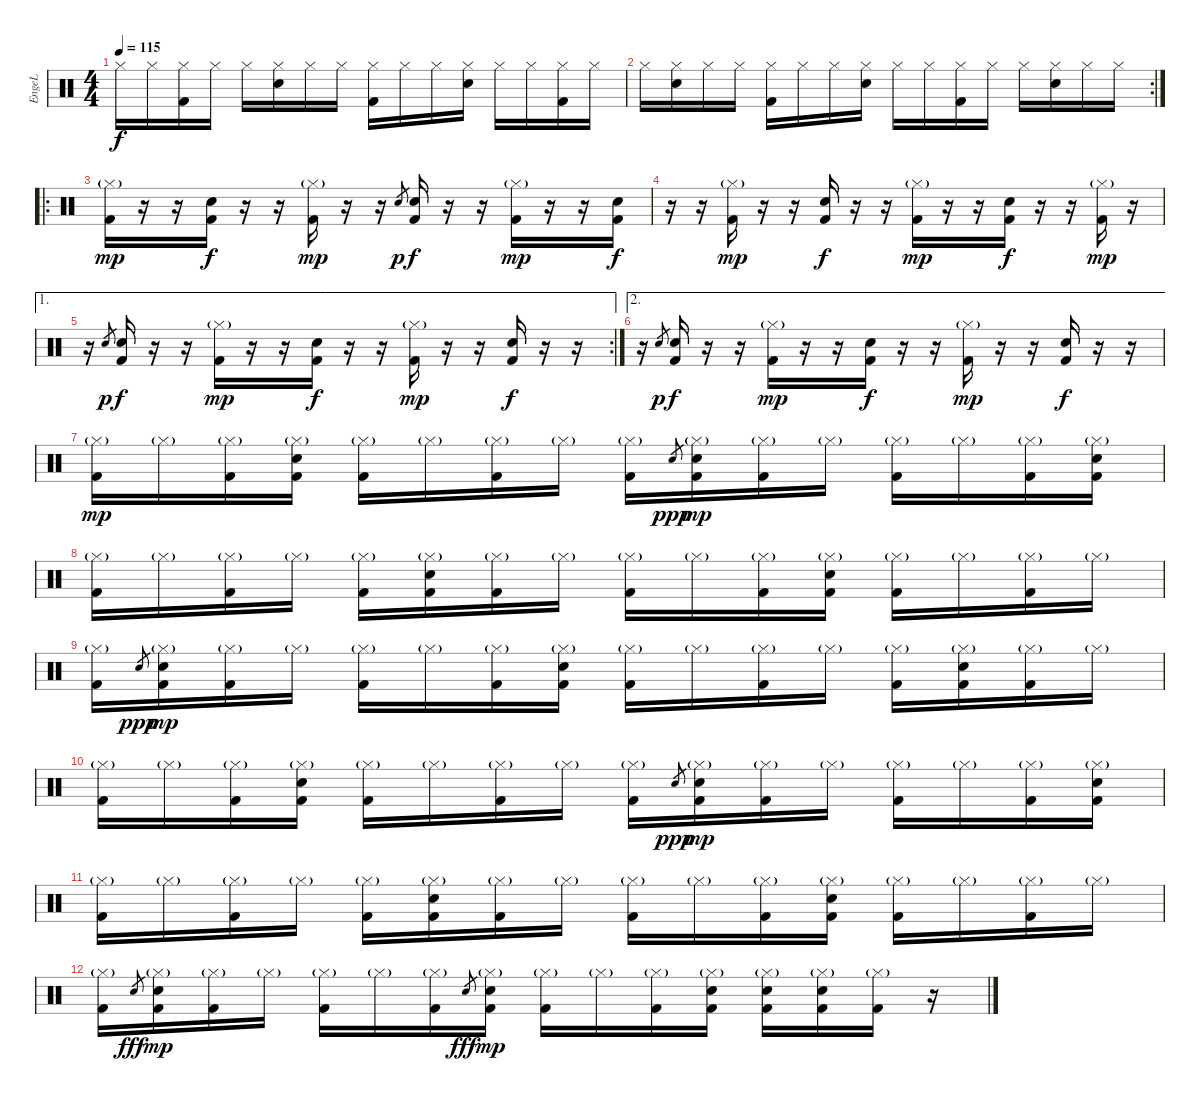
\track ("EngeL" "EngeL") {instrument percussion}
\staff {score}
\articulation defaults
\ts (4 4)
\tempo 115
\clef neutral
\ks c "Hi-Hat (closed)".16{dy f} "Hi-Hat (closed)".16
("Hi-Hat (closed)" "Kick (hit) 2").16 "Hi-Hat (closed)".16 "Hi-Hat (closed)".16 ("Hi-Hat (closed)" "Snare (hit) 2").16 "Hi-Hat (closed)".16 "Hi-Hat (closed)".16 ("Hi-Hat (closed)" "Kick (hit) 2").16 "Hi-Hat (closed)".16 "Hi-Hat (closed)".16 ("Hi-Hat (closed)" "Snare (hit) 2").16 "Hi-Hat (closed)".16 "Hi-Hat (closed)".16 ("Hi-Hat (closed)" "Kick (hit) 2").16 "Hi-Hat (closed)".16 |
\rc 2 "Hi-Hat (closed)".16
("Hi-Hat (closed)" "Snare (hit) 2").16 "Hi-Hat (closed)".16 "Hi-Hat (closed)".16 ("Hi-Hat (closed)" "Kick (hit) 2").16 "Hi-Hat (closed)".16 "Hi-Hat (closed)".16 ("Hi-Hat (closed)" "Snare (hit) 2").16 "Hi-Hat (closed)".16 "Hi-Hat (closed)".16 ("Hi-Hat (closed)" "Kick (hit) 2").16 "Hi-Hat (closed)".16 "Hi-Hat (closed)".16 ("Hi-Hat (closed)" "Snare (hit) 2").16 "Hi-Hat (closed)".16 "Hi-Hat (closed)".16 |
\ro
("Kick (hit) 2" "Hi-Hat (closed)"{g}).16{dy mp} r.16 r.16 ("Kick (hit) 2" "Snare (hit) 2").16{dy f} r.16 r.16 ("Kick (hit) 2" "Hi-Hat (closed)"{g}).16{dy mp} r.16 r.16 "Snare (hit) 2".8{gr dy p} ("Kick (hit) 2" "Snare (hit) 2").16{dy f} r.16 r.16 ("Kick (hit) 2" "Hi-Hat (closed)"{g}).16{dy mp} r.16 r.16 ("Kick (hit) 2" "Snare (hit) 2").16{dy f} |
r.16 r.16 ("Kick (hit) 2" "Hi-Hat (closed)"{g}).16{dy mp} r.16 r.16 ("Kick (hit) 2" "Snare (hit) 2").16{dy f} r.16 r.16 ("Kick (hit) 2" "Hi-Hat (closed)"{g}).16{dy mp} r.16 r.16 ("Kick (hit) 2" "Snare (hit) 2").16{dy f} r.16 r.16 ("Kick (hit) 2" "Hi-Hat (closed)"{g}).16{dy mp} r.16 |
\ae 1
\rc 2
r.16 "Snare (hit) 2".8{gr dy p} ("Kick (hit) 2" "Snare (hit) 2").16{dy f} r.16 r.16 ("Kick (hit) 2" "Hi-Hat (closed)"{g}).16{dy mp} r.16 r.16 ("Kick (hit) 2" "Snare (hit) 2").16{dy f} r.16 r.16 ("Kick (hit) 2" "Hi-Hat (closed)"{g}).16{dy mp} r.16 r.16 ("Kick (hit) 2" "Snare (hit) 2").16{dy f} r.16 r.16 |
\ae 2
r.16 "Snare (hit) 2".8{gr dy p} ("Kick (hit) 2" "Snare (hit) 2").16{dy f} r.16 r.16 ("Kick (hit) 2" "Hi-Hat (closed)"{g}).16{dy mp} r.16 r.16 ("Kick (hit) 2" "Snare (hit) 2").16{dy f} r.16 r.16 ("Kick (hit) 2" "Hi-Hat (closed)"{g}).16{dy mp} r.16 r.16 ("Kick (hit) 2" "Snare (hit) 2").16{dy f} r.16 r.16 |
("Kick (hit) 2" "Hi-Hat (closed)"{g}).16{dy mp} "Hi-Hat (closed)"{g}.16 ("Kick (hit) 2" "Hi-Hat (closed)"{g}).16 ("Kick (hit) 2" "Snare (hit) 2" "Hi-Hat (closed)"{g}).16 ("Kick (hit) 2" "Hi-Hat (closed)"{g}).16 "Hi-Hat (closed)"{g}.16 ("Kick (hit) 2" "Hi-Hat (closed)"{g}).16 "Hi-Hat (closed)"{g}.16 ("Kick (hit) 2" "Hi-Hat (closed)"{g}).16 "Snare (hit) 2".8{gr dy ppp} ("Kick (hit) 2" "Snare (hit) 2" "Hi-Hat (closed)"{g}).16{dy mp} ("Kick (hit) 2" "Hi-Hat (closed)"{g}).16 "Hi-Hat (closed)"{g}.16 ("Kick (hit) 2" "Hi-Hat (closed)"{g}).16 "Hi-Hat (closed)"{g}.16 ("Kick (hit) 2" "Hi-Hat (closed)"{g}).16 ("Kick (hit) 2" "Snare (hit) 2" "Hi-Hat (closed)"{g}).16 |
("Kick (hit) 2" "Hi-Hat (closed)"{g}).16 "Hi-Hat (closed)"{g}.16 ("Kick (hit) 2" "Hi-Hat (closed)"{g}).16 "Hi-Hat (closed)"{g}.16 ("Kick (hit) 2" "Hi-Hat (closed)"{g}).16 ("Kick (hit) 2" "Snare (hit) 2" "Hi-Hat (closed)"{g}).16 ("Kick (hit) 2" "Hi-Hat (closed)"{g}).16 "Hi-Hat (closed)"{g}.16 ("Kick (hit) 2" "Hi-Hat (closed)"{g}).16 "Hi-Hat (closed)"{g}.16 ("Kick (hit) 2" "Hi-Hat (closed)"{g}).16 ("Kick (hit) 2" "Snare (hit) 2" "Hi-Hat (closed)"{g}).16 ("Kick (hit) 2" "Hi-Hat (closed)"{g}).16 "Hi-Hat (closed)"{g}.16 ("Kick (hit) 2" "Hi-Hat (closed)"{g}).16 "Hi-Hat (closed)"{g}.16 |
("Kick (hit) 2" "Hi-Hat (closed)"{g}).16 "Snare (hit) 2".8{gr dy ppp} ("Kick (hit) 2" "Snare (hit) 2" "Hi-Hat (closed)"{g}).16{dy mp} ("Kick (hit) 2" "Hi-Hat (closed)"{g}).16 "Hi-Hat (closed)"{g}.16 ("Kick (hit) 2" "Hi-Hat (closed)"{g}).16 "Hi-Hat (closed)"{g}.16 ("Kick (hit) 2" "Hi-Hat (closed)"{g}).16 ("Kick (hit) 2" "Snare (hit) 2" "Hi-Hat (closed)"{g}).16 ("Kick (hit) 2" "Hi-Hat (closed)"{g}).16 "Hi-Hat (closed)"{g}.16 ("Kick (hit) 2" "Hi-Hat (closed)"{g}).16 "Hi-Hat (closed)"{g}.16 ("Kick (hit) 2" "Hi-Hat (closed)"{g}).16 ("Kick (hit) 2" "Snare (hit) 2" "Hi-Hat (closed)"{g}).16 ("Kick (hit) 2" "Hi-Hat (closed)"{g}).16 "Hi-Hat (closed)"{g}.16 |
("Kick (hit) 2" "Hi-Hat (closed)"{g}).16 "Hi-Hat (closed)"{g}.16 ("Kick (hit) 2" "Hi-Hat (closed)"{g}).16 ("Kick (hit) 2" "Snare (hit) 2" "Hi-Hat (closed)"{g}).16 ("Kick (hit) 2" "Hi-Hat (closed)"{g}).16 "Hi-Hat (closed)"{g}.16 ("Kick (hit) 2" "Hi-Hat (closed)"{g}).16 "Hi-Hat (closed)"{g}.16 ("Kick (hit) 2" "Hi-Hat (closed)"{g}).16 "Snare (hit) 2".8{gr dy ppp} ("Kick (hit) 2" "Snare (hit) 2" "Hi-Hat (closed)"{g}).16{dy mp} ("Kick (hit) 2" "Hi-Hat (closed)"{g}).16 "Hi-Hat (closed)"{g}.16 ("Kick (hit) 2" "Hi-Hat (closed)"{g}).16 "Hi-Hat (closed)"{g}.16 ("Kick (hit) 2" "Hi-Hat (closed)"{g}).16 ("Kick (hit) 2" "Snare (hit) 2" "Hi-Hat (closed)"{g}).16 |
("Kick (hit) 2" "Hi-Hat (closed)"{g}).16 "Hi-Hat (closed)"{g}.16 ("Kick (hit) 2" "Hi-Hat (closed)"{g}).16 "Hi-Hat (closed)"{g}.16 ("Kick (hit) 2" "Hi-Hat (closed)"{g}).16 ("Kick (hit) 2" "Snare (hit) 2" "Hi-Hat (closed)"{g}).16 ("Kick (hit) 2" "Hi-Hat (closed)"{g}).16 "Hi-Hat (closed)"{g}.16 ("Kick (hit) 2" "Hi-Hat (closed)"{g}).16 "Hi-Hat (closed)"{g}.16 ("Kick (hit) 2" "Hi-Hat (closed)"{g}).16 ("Kick (hit) 2" "Snare (hit) 2" "Hi-Hat (closed)"{g}).16 ("Kick (hit) 2" "Hi-Hat (closed)"{g}).16 "Hi-Hat (closed)"{g}.16 ("Kick (hit) 2" "Hi-Hat (closed)"{g}).16 "Hi-Hat (closed)"{g}.16 |
("Kick (hit) 2" "Hi-Hat (closed)"{g}).16 "Snare (hit) 2".8{gr dy fff} ("Kick (hit) 2" "Snare (hit) 2" "Hi-Hat (closed)"{g}).16{dy mp} ("Kick (hit) 2" "Hi-Hat (closed)"{g}).16 "Hi-Hat (closed)"{g}.16 ("Kick (hit) 2" "Hi-Hat (closed)"{g}).16 "Hi-Hat (closed)"{g}.16 ("Kick (hit) 2" "Hi-Hat (closed)"{g}).16 "Snare (hit) 2".8{gr dy fff} ("Kick (hit) 2" "Snare (hit) 2" "Hi-Hat (closed)"{g}).16{dy mp} ("Kick (hit) 2" "Hi-Hat (closed)"{g}).16 "Hi-Hat (closed)"{g}.16 ("Kick (hit) 2" "Hi-Hat (closed)"{g}).16 ("Kick (hit) 2" "Snare (hit) 2" "Hi-Hat (closed)"{g}).16 ("Kick (hit) 2" "Snare (hit) 2" "Hi-Hat (closed)"{g}).16 ("Kick (hit) 2" "Snare (hit) 2" "Hi-Hat (closed)"{g}).16 ("Kick (hit) 2" "Hi-Hat (closed)"{g}).16 r.16
